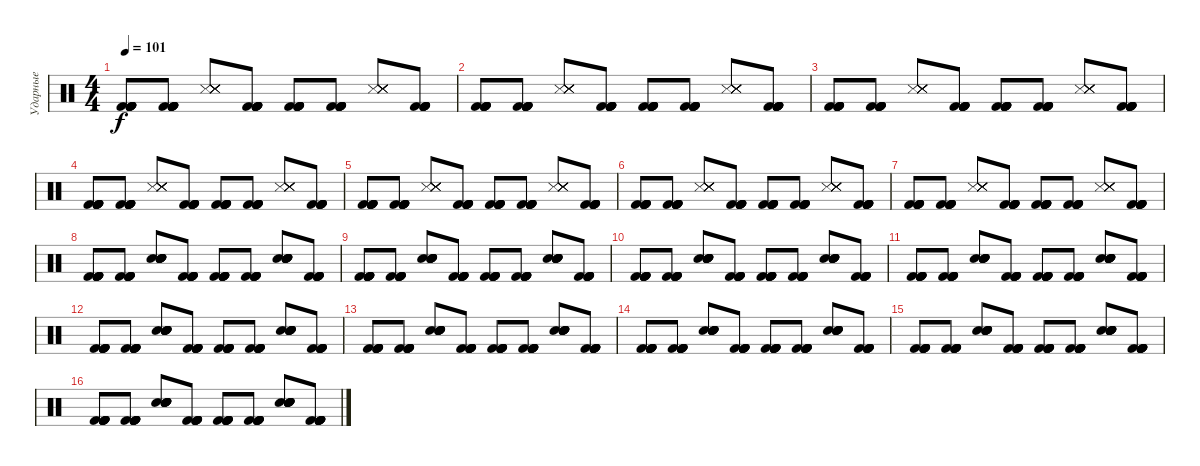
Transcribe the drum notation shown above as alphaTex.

\track ("Ударные" "Ударные") {instrument percussion}
\staff {score}
\articulation defaults
\ts (4 4)
\tempo 101
\clef neutral
\ks c
("Kick (hit) 2" "Kick (hit) 2" "Kick (hit) 2" "Kick (hit) 2" "Kick (hit) 2" "Kick (hit) 2").8{dy f} ("Kick (hit) 2" "Kick (hit) 2" "Kick (hit) 2" "Kick (hit) 2" "Kick (hit) 2" "Kick (hit) 2").8 ("Snare (side stick) 3" "Snare (side stick) 3" "Snare (side stick) 3" "Snare (side stick) 3" "Snare (side stick) 3" "Snare (side stick) 3").8 ("Kick (hit) 2" "Kick (hit) 2" "Kick (hit) 2" "Kick (hit) 2" "Kick (hit) 2" "Kick (hit) 2").8 ("Kick (hit) 2" "Kick (hit) 2" "Kick (hit) 2" "Kick (hit) 2" "Kick (hit) 2" "Kick (hit) 2").8 ("Kick (hit) 2" "Kick (hit) 2" "Kick (hit) 2" "Kick (hit) 2" "Kick (hit) 2" "Kick (hit) 2").8 ("Snare (side stick) 3" "Snare (side stick) 3" "Snare (side stick) 3" "Snare (side stick) 3" "Snare (side stick) 3" "Snare (side stick) 3").8 ("Kick (hit) 2" "Kick (hit) 2" "Kick (hit) 2" "Kick (hit) 2" "Kick (hit) 2" "Kick (hit) 2").8 |
("Kick (hit) 2" "Kick (hit) 2" "Kick (hit) 2" "Kick (hit) 2" "Kick (hit) 2" "Kick (hit) 2").8 ("Kick (hit) 2" "Kick (hit) 2" "Kick (hit) 2" "Kick (hit) 2" "Kick (hit) 2" "Kick (hit) 2").8 ("Snare (side stick) 3" "Snare (side stick) 3" "Snare (side stick) 3" "Snare (side stick) 3" "Snare (side stick) 3" "Snare (side stick) 3").8 ("Kick (hit) 2" "Kick (hit) 2" "Kick (hit) 2" "Kick (hit) 2" "Kick (hit) 2" "Kick (hit) 2").8 ("Kick (hit) 2" "Kick (hit) 2" "Kick (hit) 2" "Kick (hit) 2" "Kick (hit) 2" "Kick (hit) 2").8 ("Kick (hit) 2" "Kick (hit) 2" "Kick (hit) 2" "Kick (hit) 2" "Kick (hit) 2" "Kick (hit) 2").8 ("Snare (side stick) 3" "Snare (side stick) 3" "Snare (side stick) 3" "Snare (side stick) 3" "Snare (side stick) 3" "Snare (side stick) 3").8 ("Kick (hit) 2" "Kick (hit) 2" "Kick (hit) 2" "Kick (hit) 2" "Kick (hit) 2" "Kick (hit) 2").8 |
("Kick (hit) 2" "Kick (hit) 2" "Kick (hit) 2" "Kick (hit) 2" "Kick (hit) 2" "Kick (hit) 2").8 ("Kick (hit) 2" "Kick (hit) 2" "Kick (hit) 2" "Kick (hit) 2" "Kick (hit) 2" "Kick (hit) 2").8 ("Snare (side stick) 3" "Snare (side stick) 3" "Snare (side stick) 3" "Snare (side stick) 3" "Snare (side stick) 3" "Snare (side stick) 3").8 ("Kick (hit) 2" "Kick (hit) 2" "Kick (hit) 2" "Kick (hit) 2" "Kick (hit) 2" "Kick (hit) 2").8 ("Kick (hit) 2" "Kick (hit) 2" "Kick (hit) 2" "Kick (hit) 2" "Kick (hit) 2" "Kick (hit) 2").8 ("Kick (hit) 2" "Kick (hit) 2" "Kick (hit) 2" "Kick (hit) 2" "Kick (hit) 2" "Kick (hit) 2").8 ("Snare (side stick) 3" "Snare (side stick) 3" "Snare (side stick) 3" "Snare (side stick) 3" "Snare (side stick) 3" "Snare (side stick) 3").8 ("Kick (hit) 2" "Kick (hit) 2" "Kick (hit) 2" "Kick (hit) 2" "Kick (hit) 2" "Kick (hit) 2").8 |
("Kick (hit) 2" "Kick (hit) 2" "Kick (hit) 2" "Kick (hit) 2" "Kick (hit) 2" "Kick (hit) 2").8 ("Kick (hit) 2" "Kick (hit) 2" "Kick (hit) 2" "Kick (hit) 2" "Kick (hit) 2" "Kick (hit) 2").8 ("Snare (side stick) 3" "Snare (side stick) 3" "Snare (side stick) 3" "Snare (side stick) 3" "Snare (side stick) 3" "Snare (side stick) 3").8 ("Kick (hit) 2" "Kick (hit) 2" "Kick (hit) 2" "Kick (hit) 2" "Kick (hit) 2" "Kick (hit) 2").8 ("Kick (hit) 2" "Kick (hit) 2" "Kick (hit) 2" "Kick (hit) 2" "Kick (hit) 2" "Kick (hit) 2").8 ("Kick (hit) 2" "Kick (hit) 2" "Kick (hit) 2" "Kick (hit) 2" "Kick (hit) 2" "Kick (hit) 2").8 ("Snare (side stick) 3" "Snare (side stick) 3" "Snare (side stick) 3" "Snare (side stick) 3" "Snare (side stick) 3" "Snare (side stick) 3").8 ("Kick (hit) 2" "Kick (hit) 2" "Kick (hit) 2" "Kick (hit) 2" "Kick (hit) 2" "Kick (hit) 2").8 |
("Kick (hit) 2" "Kick (hit) 2" "Kick (hit) 2" "Kick (hit) 2" "Kick (hit) 2" "Kick (hit) 2").8 ("Kick (hit) 2" "Kick (hit) 2" "Kick (hit) 2" "Kick (hit) 2" "Kick (hit) 2" "Kick (hit) 2").8 ("Snare (side stick) 3" "Snare (side stick) 3" "Snare (side stick) 3" "Snare (side stick) 3" "Snare (side stick) 3" "Snare (side stick) 3").8 ("Kick (hit) 2" "Kick (hit) 2" "Kick (hit) 2" "Kick (hit) 2" "Kick (hit) 2" "Kick (hit) 2").8 ("Kick (hit) 2" "Kick (hit) 2" "Kick (hit) 2" "Kick (hit) 2" "Kick (hit) 2" "Kick (hit) 2").8 ("Kick (hit) 2" "Kick (hit) 2" "Kick (hit) 2" "Kick (hit) 2" "Kick (hit) 2" "Kick (hit) 2").8 ("Snare (side stick) 3" "Snare (side stick) 3" "Snare (side stick) 3" "Snare (side stick) 3" "Snare (side stick) 3" "Snare (side stick) 3").8 ("Kick (hit) 2" "Kick (hit) 2" "Kick (hit) 2" "Kick (hit) 2" "Kick (hit) 2" "Kick (hit) 2").8 |
("Kick (hit) 2" "Kick (hit) 2" "Kick (hit) 2" "Kick (hit) 2" "Kick (hit) 2" "Kick (hit) 2").8 ("Kick (hit) 2" "Kick (hit) 2" "Kick (hit) 2" "Kick (hit) 2" "Kick (hit) 2" "Kick (hit) 2").8 ("Snare (side stick) 3" "Snare (side stick) 3" "Snare (side stick) 3" "Snare (side stick) 3" "Snare (side stick) 3" "Snare (side stick) 3").8 ("Kick (hit) 2" "Kick (hit) 2" "Kick (hit) 2" "Kick (hit) 2" "Kick (hit) 2" "Kick (hit) 2").8 ("Kick (hit) 2" "Kick (hit) 2" "Kick (hit) 2" "Kick (hit) 2" "Kick (hit) 2" "Kick (hit) 2").8 ("Kick (hit) 2" "Kick (hit) 2" "Kick (hit) 2" "Kick (hit) 2" "Kick (hit) 2" "Kick (hit) 2").8 ("Snare (side stick) 3" "Snare (side stick) 3" "Snare (side stick) 3" "Snare (side stick) 3" "Snare (side stick) 3" "Snare (side stick) 3").8 ("Kick (hit) 2" "Kick (hit) 2" "Kick (hit) 2" "Kick (hit) 2" "Kick (hit) 2" "Kick (hit) 2").8 |
("Kick (hit) 2" "Kick (hit) 2" "Kick (hit) 2" "Kick (hit) 2" "Kick (hit) 2" "Kick (hit) 2").8 ("Kick (hit) 2" "Kick (hit) 2" "Kick (hit) 2" "Kick (hit) 2" "Kick (hit) 2" "Kick (hit) 2").8 ("Snare (side stick) 3" "Snare (side stick) 3" "Snare (side stick) 3" "Snare (side stick) 3" "Snare (side stick) 3" "Snare (side stick) 3").8 ("Kick (hit) 2" "Kick (hit) 2" "Kick (hit) 2" "Kick (hit) 2" "Kick (hit) 2" "Kick (hit) 2").8 ("Kick (hit) 2" "Kick (hit) 2" "Kick (hit) 2" "Kick (hit) 2" "Kick (hit) 2" "Kick (hit) 2").8 ("Kick (hit) 2" "Kick (hit) 2" "Kick (hit) 2" "Kick (hit) 2" "Kick (hit) 2" "Kick (hit) 2").8 ("Snare (side stick) 3" "Snare (side stick) 3" "Snare (side stick) 3" "Snare (side stick) 3" "Snare (side stick) 3" "Snare (side stick) 3").8 ("Kick (hit) 2" "Kick (hit) 2" "Kick (hit) 2" "Kick (hit) 2" "Kick (hit) 2" "Kick (hit) 2").8 |
("Kick (hit) 2" "Kick (hit) 2" "Kick (hit) 2" "Kick (hit) 2" "Kick (hit) 2" "Kick (hit) 2").8 ("Kick (hit) 2" "Kick (hit) 2" "Kick (hit) 2" "Kick (hit) 2" "Kick (hit) 2" "Kick (hit) 2").8 ("Snare (hit) 2" "Snare (hit) 2" "Snare (hit) 2" "Snare (hit) 2" "Snare (hit) 2" "Snare (hit) 2").8 ("Kick (hit) 2" "Kick (hit) 2" "Kick (hit) 2" "Kick (hit) 2" "Kick (hit) 2" "Kick (hit) 2").8 ("Kick (hit) 2" "Kick (hit) 2" "Kick (hit) 2" "Kick (hit) 2" "Kick (hit) 2" "Kick (hit) 2").8 ("Kick (hit) 2" "Kick (hit) 2" "Kick (hit) 2" "Kick (hit) 2" "Kick (hit) 2" "Kick (hit) 2").8 ("Snare (hit) 2" "Snare (hit) 2" "Snare (hit) 2" "Snare (hit) 2" "Snare (hit) 2" "Snare (hit) 2").8 ("Kick (hit) 2" "Kick (hit) 2" "Kick (hit) 2" "Kick (hit) 2" "Kick (hit) 2" "Kick (hit) 2").8 |
("Kick (hit) 2" "Kick (hit) 2" "Kick (hit) 2" "Kick (hit) 2" "Kick (hit) 2" "Kick (hit) 2").8 ("Kick (hit) 2" "Kick (hit) 2" "Kick (hit) 2" "Kick (hit) 2" "Kick (hit) 2" "Kick (hit) 2").8 ("Snare (hit) 2" "Snare (hit) 2" "Snare (hit) 2" "Snare (hit) 2" "Snare (hit) 2" "Snare (hit) 2").8 ("Kick (hit) 2" "Kick (hit) 2" "Kick (hit) 2" "Kick (hit) 2" "Kick (hit) 2" "Kick (hit) 2").8 ("Kick (hit) 2" "Kick (hit) 2" "Kick (hit) 2" "Kick (hit) 2" "Kick (hit) 2" "Kick (hit) 2").8 ("Kick (hit) 2" "Kick (hit) 2" "Kick (hit) 2" "Kick (hit) 2" "Kick (hit) 2" "Kick (hit) 2").8 ("Snare (hit) 2" "Snare (hit) 2" "Snare (hit) 2" "Snare (hit) 2" "Snare (hit) 2" "Snare (hit) 2").8 ("Kick (hit) 2" "Kick (hit) 2" "Kick (hit) 2" "Kick (hit) 2" "Kick (hit) 2" "Kick (hit) 2").8 |
("Kick (hit) 2" "Kick (hit) 2" "Kick (hit) 2" "Kick (hit) 2" "Kick (hit) 2" "Kick (hit) 2").8 ("Kick (hit) 2" "Kick (hit) 2" "Kick (hit) 2" "Kick (hit) 2" "Kick (hit) 2" "Kick (hit) 2").8 ("Snare (hit) 2" "Snare (hit) 2" "Snare (hit) 2" "Snare (hit) 2" "Snare (hit) 2" "Snare (hit) 2").8 ("Kick (hit) 2" "Kick (hit) 2" "Kick (hit) 2" "Kick (hit) 2" "Kick (hit) 2" "Kick (hit) 2").8 ("Kick (hit) 2" "Kick (hit) 2" "Kick (hit) 2" "Kick (hit) 2" "Kick (hit) 2" "Kick (hit) 2").8 ("Kick (hit) 2" "Kick (hit) 2" "Kick (hit) 2" "Kick (hit) 2" "Kick (hit) 2" "Kick (hit) 2").8 ("Snare (hit) 2" "Snare (hit) 2" "Snare (hit) 2" "Snare (hit) 2" "Snare (hit) 2" "Snare (hit) 2").8 ("Kick (hit) 2" "Kick (hit) 2" "Kick (hit) 2" "Kick (hit) 2" "Kick (hit) 2" "Kick (hit) 2").8 |
("Kick (hit) 2" "Kick (hit) 2" "Kick (hit) 2" "Kick (hit) 2" "Kick (hit) 2" "Kick (hit) 2").8 ("Kick (hit) 2" "Kick (hit) 2" "Kick (hit) 2" "Kick (hit) 2" "Kick (hit) 2" "Kick (hit) 2").8 ("Snare (hit) 2" "Snare (hit) 2" "Snare (hit) 2" "Snare (hit) 2" "Snare (hit) 2" "Snare (hit) 2").8 ("Kick (hit) 2" "Kick (hit) 2" "Kick (hit) 2" "Kick (hit) 2" "Kick (hit) 2" "Kick (hit) 2").8 ("Kick (hit) 2" "Kick (hit) 2" "Kick (hit) 2" "Kick (hit) 2" "Kick (hit) 2" "Kick (hit) 2").8 ("Kick (hit) 2" "Kick (hit) 2" "Kick (hit) 2" "Kick (hit) 2" "Kick (hit) 2" "Kick (hit) 2").8 ("Snare (hit) 2" "Snare (hit) 2" "Snare (hit) 2" "Snare (hit) 2" "Snare (hit) 2" "Snare (hit) 2").8 ("Kick (hit) 2" "Kick (hit) 2" "Kick (hit) 2" "Kick (hit) 2" "Kick (hit) 2" "Kick (hit) 2").8 |
("Kick (hit) 2" "Kick (hit) 2" "Kick (hit) 2" "Kick (hit) 2" "Kick (hit) 2" "Kick (hit) 2").8 ("Kick (hit) 2" "Kick (hit) 2" "Kick (hit) 2" "Kick (hit) 2" "Kick (hit) 2" "Kick (hit) 2").8 ("Snare (hit) 2" "Snare (hit) 2" "Snare (hit) 2" "Snare (hit) 2" "Snare (hit) 2" "Snare (hit) 2").8 ("Kick (hit) 2" "Kick (hit) 2" "Kick (hit) 2" "Kick (hit) 2" "Kick (hit) 2" "Kick (hit) 2").8 ("Kick (hit) 2" "Kick (hit) 2" "Kick (hit) 2" "Kick (hit) 2" "Kick (hit) 2" "Kick (hit) 2").8 ("Kick (hit) 2" "Kick (hit) 2" "Kick (hit) 2" "Kick (hit) 2" "Kick (hit) 2" "Kick (hit) 2").8 ("Snare (hit) 2" "Snare (hit) 2" "Snare (hit) 2" "Snare (hit) 2" "Snare (hit) 2" "Snare (hit) 2").8 ("Kick (hit) 2" "Kick (hit) 2" "Kick (hit) 2" "Kick (hit) 2" "Kick (hit) 2" "Kick (hit) 2").8 |
("Kick (hit) 2" "Kick (hit) 2" "Kick (hit) 2" "Kick (hit) 2" "Kick (hit) 2" "Kick (hit) 2").8 ("Kick (hit) 2" "Kick (hit) 2" "Kick (hit) 2" "Kick (hit) 2" "Kick (hit) 2" "Kick (hit) 2").8 ("Snare (hit) 2" "Snare (hit) 2" "Snare (hit) 2" "Snare (hit) 2" "Snare (hit) 2" "Snare (hit) 2").8 ("Kick (hit) 2" "Kick (hit) 2" "Kick (hit) 2" "Kick (hit) 2" "Kick (hit) 2" "Kick (hit) 2").8 ("Kick (hit) 2" "Kick (hit) 2" "Kick (hit) 2" "Kick (hit) 2" "Kick (hit) 2" "Kick (hit) 2").8 ("Kick (hit) 2" "Kick (hit) 2" "Kick (hit) 2" "Kick (hit) 2" "Kick (hit) 2" "Kick (hit) 2").8 ("Snare (hit) 2" "Snare (hit) 2" "Snare (hit) 2" "Snare (hit) 2" "Snare (hit) 2" "Snare (hit) 2").8 ("Kick (hit) 2" "Kick (hit) 2" "Kick (hit) 2" "Kick (hit) 2" "Kick (hit) 2" "Kick (hit) 2").8 |
("Kick (hit) 2" "Kick (hit) 2" "Kick (hit) 2" "Kick (hit) 2" "Kick (hit) 2" "Kick (hit) 2").8 ("Kick (hit) 2" "Kick (hit) 2" "Kick (hit) 2" "Kick (hit) 2" "Kick (hit) 2" "Kick (hit) 2").8 ("Snare (hit) 2" "Snare (hit) 2" "Snare (hit) 2" "Snare (hit) 2" "Snare (hit) 2" "Snare (hit) 2").8 ("Kick (hit) 2" "Kick (hit) 2" "Kick (hit) 2" "Kick (hit) 2" "Kick (hit) 2" "Kick (hit) 2").8 ("Kick (hit) 2" "Kick (hit) 2" "Kick (hit) 2" "Kick (hit) 2" "Kick (hit) 2" "Kick (hit) 2").8 ("Kick (hit) 2" "Kick (hit) 2" "Kick (hit) 2" "Kick (hit) 2" "Kick (hit) 2" "Kick (hit) 2").8 ("Snare (hit) 2" "Snare (hit) 2" "Snare (hit) 2" "Snare (hit) 2" "Snare (hit) 2" "Snare (hit) 2").8 ("Kick (hit) 2" "Kick (hit) 2" "Kick (hit) 2" "Kick (hit) 2" "Kick (hit) 2" "Kick (hit) 2").8 |
("Kick (hit) 2" "Kick (hit) 2" "Kick (hit) 2" "Kick (hit) 2" "Kick (hit) 2" "Kick (hit) 2").8 ("Kick (hit) 2" "Kick (hit) 2" "Kick (hit) 2" "Kick (hit) 2" "Kick (hit) 2" "Kick (hit) 2").8 ("Snare (hit) 2" "Snare (hit) 2" "Snare (hit) 2" "Snare (hit) 2" "Snare (hit) 2" "Snare (hit) 2").8 ("Kick (hit) 2" "Kick (hit) 2" "Kick (hit) 2" "Kick (hit) 2" "Kick (hit) 2" "Kick (hit) 2").8 ("Kick (hit) 2" "Kick (hit) 2" "Kick (hit) 2" "Kick (hit) 2" "Kick (hit) 2" "Kick (hit) 2").8 ("Kick (hit) 2" "Kick (hit) 2" "Kick (hit) 2" "Kick (hit) 2" "Kick (hit) 2" "Kick (hit) 2").8 ("Snare (hit) 2" "Snare (hit) 2" "Snare (hit) 2" "Snare (hit) 2" "Snare (hit) 2" "Snare (hit) 2").8 ("Kick (hit) 2" "Kick (hit) 2" "Kick (hit) 2" "Kick (hit) 2" "Kick (hit) 2" "Kick (hit) 2").8 |
("Kick (hit) 2" "Kick (hit) 2" "Kick (hit) 2" "Kick (hit) 2" "Kick (hit) 2" "Kick (hit) 2").8 ("Kick (hit) 2" "Kick (hit) 2" "Kick (hit) 2" "Kick (hit) 2" "Kick (hit) 2" "Kick (hit) 2").8 ("Snare (hit) 2" "Snare (hit) 2" "Snare (hit) 2" "Snare (hit) 2" "Snare (hit) 2" "Snare (hit) 2").8 ("Kick (hit) 2" "Kick (hit) 2" "Kick (hit) 2" "Kick (hit) 2" "Kick (hit) 2" "Kick (hit) 2").8 ("Kick (hit) 2" "Kick (hit) 2" "Kick (hit) 2" "Kick (hit) 2" "Kick (hit) 2" "Kick (hit) 2").8 ("Kick (hit) 2" "Kick (hit) 2" "Kick (hit) 2" "Kick (hit) 2" "Kick (hit) 2" "Kick (hit) 2").8 ("Snare (hit) 2" "Snare (hit) 2" "Snare (hit) 2" "Snare (hit) 2" "Snare (hit) 2" "Snare (hit) 2").8 ("Kick (hit) 2" "Kick (hit) 2" "Kick (hit) 2" "Kick (hit) 2" "Kick (hit) 2" "Kick (hit) 2").8
